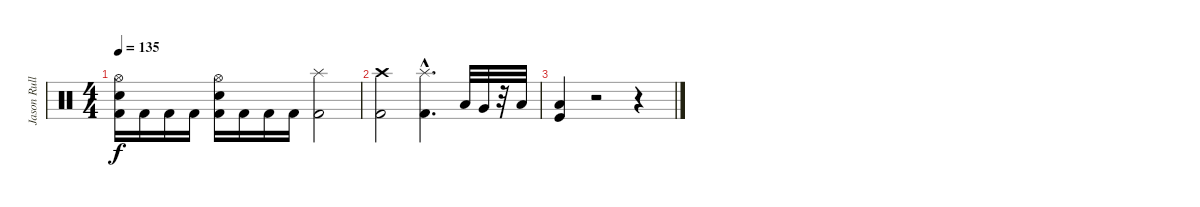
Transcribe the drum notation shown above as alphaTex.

\track ("Jason Rullo" "Jason Rull") {instrument percussion}
\staff {score}
\articulation defaults
\ts (4 4)
\tempo 135
\clef neutral
\ks c
("Hi-Hat (open)" "Kick (hit) 2" "Electric Snare (hit)").16{dy f} "Kick (hit) 2".16 "Kick (hit) 2".16 "Kick (hit) 2".16 ("Hi-Hat (open)" "Kick (hit) 2" "Electric Snare (hit)").16 "Kick (hit) 2".16 "Kick (hit) 2".16 "Kick (hit) 2".16 ("Splash (hit)" "Kick (hit) 2").2 |
("Crash high (hit)" "Kick (hit) 2").2 ("Splash (hit)"{hac} "Kick (hit) 2"{hac}).4{d} "Low Tom (hit)".32 "Very Low Tom (hit)".32 r.32 "Low Floor Tom (hit)".32 |
("Low Floor Tom (hit)" "Kick (hit)").4 r.2 r.4
